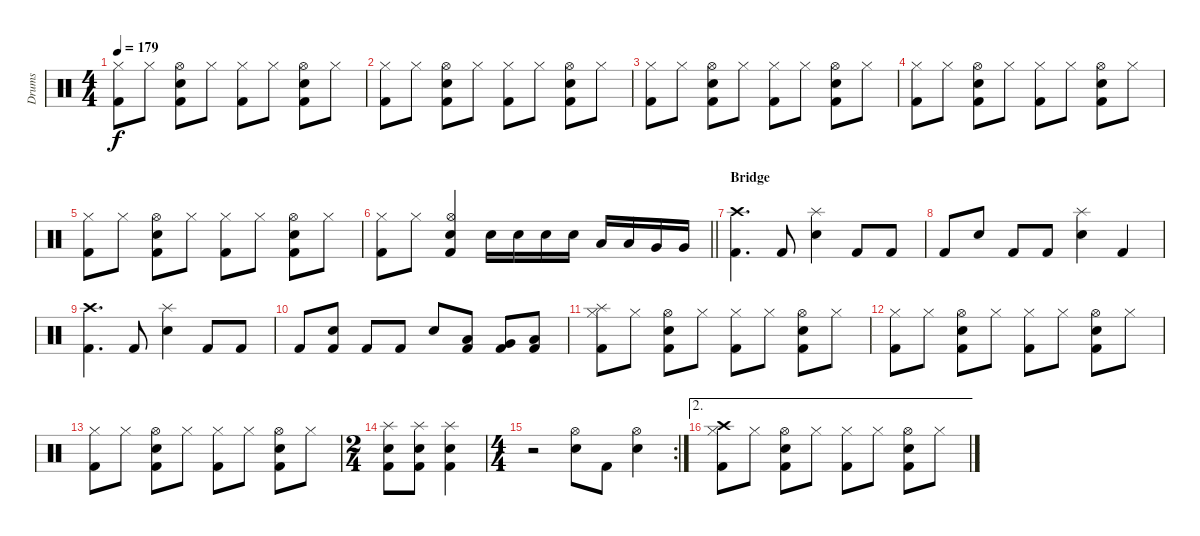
\track ("Drums" "Drums") {instrument percussion}
\staff {score}
\articulation defaults
\ts (4 4)
\tempo 179
\clef neutral
\ks c
("Hi-Hat (closed)" "Kick (hit) 2").8{dy f} "Hi-Hat (closed)".8 ("Hi-Hat (open)" "Snare (hit) 2" "Kick (hit) 2").8 "Hi-Hat (closed)".8 ("Hi-Hat (closed)" "Kick (hit) 2").8 "Hi-Hat (closed)".8 ("Hi-Hat (open)" "Snare (hit) 2" "Kick (hit) 2").8 "Hi-Hat (closed)".8 |
("Hi-Hat (closed)" "Kick (hit) 2").8 "Hi-Hat (closed)".8 ("Hi-Hat (open)" "Snare (hit) 2" "Kick (hit) 2").8 "Hi-Hat (closed)".8 ("Hi-Hat (closed)" "Kick (hit) 2").8 "Hi-Hat (closed)".8 ("Hi-Hat (open)" "Snare (hit) 2" "Kick (hit) 2").8 "Hi-Hat (closed)".8 |
("Hi-Hat (closed)" "Kick (hit) 2").8 "Hi-Hat (closed)".8 ("Hi-Hat (open)" "Snare (hit) 2" "Kick (hit) 2").8 "Hi-Hat (closed)".8 ("Hi-Hat (closed)" "Kick (hit) 2").8 "Hi-Hat (closed)".8 ("Hi-Hat (open)" "Snare (hit) 2" "Kick (hit) 2").8 "Hi-Hat (closed)".8 |
("Hi-Hat (closed)" "Kick (hit) 2").8 "Hi-Hat (closed)".8 ("Hi-Hat (open)" "Snare (hit) 2" "Kick (hit) 2").8 "Hi-Hat (closed)".8 ("Hi-Hat (closed)" "Kick (hit) 2").8 "Hi-Hat (closed)".8 ("Hi-Hat (open)" "Snare (hit) 2" "Kick (hit) 2").8 "Hi-Hat (closed)".8 |
("Hi-Hat (closed)" "Kick (hit) 2").8 "Hi-Hat (closed)".8 ("Hi-Hat (open)" "Snare (hit) 2" "Kick (hit) 2").8 "Hi-Hat (closed)".8 ("Hi-Hat (closed)" "Kick (hit) 2").8 "Hi-Hat (closed)".8 ("Hi-Hat (open)" "Snare (hit) 2" "Kick (hit) 2").8 "Hi-Hat (closed)".8 |
\barLineRight lightlight
("Hi-Hat (closed)" "Kick (hit) 2").8 "Hi-Hat (closed)".8 ("Hi-Hat (open)" "Snare (hit) 2" "Kick (hit) 2").4 "Snare (hit) 2".16 "Snare (hit) 2".16 "Snare (hit) 2".16 "Snare (hit) 2".16 "Low Tom (hit)".16 "Low Tom (hit)".16 "Very Low Tom (hit)".16 "Very Low Tom (hit)".16 |
\section ("" "Bridge")
("Crash high (hit)" "Kick (hit) 2").4{d} "Kick (hit) 2".8 ("Splash (hit)" "Snare (hit) 2").4 "Kick (hit) 2".8 "Kick (hit) 2".8 |
"Kick (hit) 2".8 "Snare (hit) 2".8 "Kick (hit) 2".8 "Kick (hit) 2".8 ("Splash (hit)" "Snare (hit) 2").4 "Kick (hit) 2".4 |
("Crash high (hit)" "Kick (hit) 2").4{d} "Kick (hit) 2".8 ("Splash (hit)" "Snare (hit) 2").4 "Kick (hit) 2".8 "Kick (hit) 2".8 |
"Kick (hit) 2".8 ("Snare (hit) 2" "Kick (hit) 2").8 "Kick (hit) 2".8 "Kick (hit) 2".8 "Snare (hit) 2".8 ("Low Tom (hit)" "Kick (hit) 2").8 ("Very Low Tom (hit)" "Kick (hit) 2").8 ("Low Floor Tom (hit)" "Kick (hit) 2").8 |
("Hi-Hat (closed)" "Splash (hit)" "Kick (hit) 2").8 "Hi-Hat (closed)".8 ("Hi-Hat (open)" "Snare (hit) 2" "Kick (hit) 2").8 "Hi-Hat (closed)".8 ("Hi-Hat (closed)" "Kick (hit) 2").8 "Hi-Hat (closed)".8 ("Hi-Hat (open)" "Snare (hit) 2" "Kick (hit) 2").8 "Hi-Hat (closed)".8 |
("Hi-Hat (closed)" "Kick (hit) 2").8 "Hi-Hat (closed)".8 ("Hi-Hat (open)" "Snare (hit) 2" "Kick (hit) 2").8 "Hi-Hat (closed)".8 ("Hi-Hat (closed)" "Kick (hit) 2").8 "Hi-Hat (closed)".8 ("Hi-Hat (open)" "Snare (hit) 2" "Kick (hit) 2").8 "Hi-Hat (closed)".8 |
("Hi-Hat (closed)" "Kick (hit) 2").8 "Hi-Hat (closed)".8 ("Hi-Hat (open)" "Snare (hit) 2" "Kick (hit) 2").8 "Hi-Hat (closed)".8 ("Hi-Hat (closed)" "Kick (hit) 2").8 "Hi-Hat (closed)".8 ("Hi-Hat (open)" "Snare (hit) 2" "Kick (hit) 2").8 "Hi-Hat (closed)".8 |
\ts (2 4)
("Splash (hit)" "Snare (hit) 2" "Kick (hit) 2").8 ("Splash (hit)" "Snare (hit) 2" "Kick (hit) 2").8 ("Splash (hit)" "Snare (hit) 2" "Kick (hit) 2").4 |
\rc 2
\ts (4 4)
r.2 ("Hi-Hat (open)" "Snare (hit) 2").8 "Kick (hit) 2".8 ("Hi-Hat (open)" "Snare (hit) 2").4 |
\ae 2
("Hi-Hat (closed)" "Crash high (hit)" "Kick (hit) 2").8 "Hi-Hat (closed)".8 ("Hi-Hat (open)" "Snare (hit) 2" "Kick (hit) 2").8 "Hi-Hat (closed)".8 ("Hi-Hat (closed)" "Kick (hit) 2").8 "Hi-Hat (closed)".8 ("Hi-Hat (open)" "Snare (hit) 2" "Kick (hit) 2").8 "Hi-Hat (closed)".8
